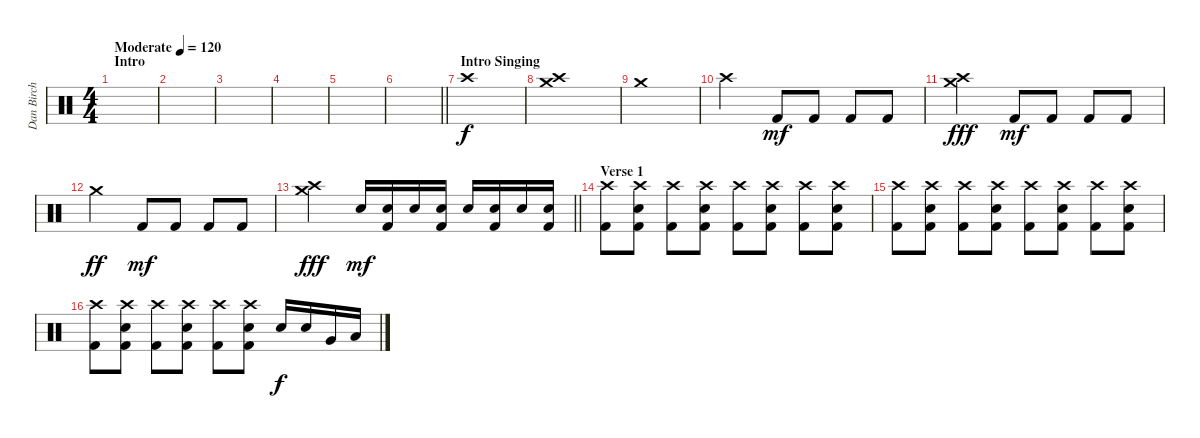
\track ("Dan Birch" "Dan Birch") {instrument percussion}
\staff {score}
\articulation defaults
\ts (4 4)
\section ("" "Intro")
\tempo (120 "Moderate")
\clef neutral
\ks c
|
|
|
|
|
\barLineRight lightlight
|
\section ("" "Intro Singing")
"Crash high (hit)".1 |
("Crash high (hit)" "Crash medium (hit)").1 |
"Crash medium (hit)".1 |
"Crash high (hit)".2 "Kick (hit) 2".8{dy mf} "Kick (hit) 2".8 "Kick (hit) 2".8 "Kick (hit) 2".8 |
("Crash high (hit)" "Crash medium (hit)").2{dy fff} "Kick (hit) 2".8{dy mf} "Kick (hit) 2".8 "Kick (hit) 2".8 "Kick (hit) 2".8 |
"Crash medium (hit)".2{dy ff} "Kick (hit) 2".8{dy mf} "Kick (hit) 2".8 "Kick (hit) 2".8 "Kick (hit) 2".8 |
\barLineRight lightlight
("Crash high (hit)" "Crash medium (hit)").2{dy fff} "Snare (hit) 2".16{dy mf} ("Snare (hit) 2" "Kick (hit) 2").16 "Snare (hit) 2".16 ("Snare (hit) 2" "Kick (hit) 2").16 "Snare (hit) 2".16 ("Snare (hit) 2" "Kick (hit) 2").16 "Snare (hit) 2".16 ("Snare (hit) 2" "Kick (hit) 2").16 |
\section ("" "Verse 1")
("Crash high (hit)" "Kick (hit) 2").8 ("Crash high (hit)" "Snare (hit) 2" "Kick (hit) 2").8 ("Crash high (hit)" "Kick (hit) 2").8 ("Crash high (hit)" "Snare (hit) 2" "Kick (hit) 2").8 ("Crash high (hit)" "Kick (hit) 2").8 ("Crash high (hit)" "Snare (hit) 2" "Kick (hit) 2").8 ("Crash high (hit)" "Kick (hit) 2").8 ("Crash high (hit)" "Snare (hit) 2" "Kick (hit) 2").8 |
("Crash high (hit)" "Kick (hit) 2").8 ("Crash high (hit)" "Snare (hit) 2" "Kick (hit) 2").8 ("Crash high (hit)" "Kick (hit) 2").8 ("Crash high (hit)" "Snare (hit) 2" "Kick (hit) 2").8 ("Crash high (hit)" "Kick (hit) 2").8 ("Crash high (hit)" "Snare (hit) 2" "Kick (hit) 2").8 ("Crash high (hit)" "Kick (hit) 2").8 ("Crash high (hit)" "Snare (hit) 2" "Kick (hit) 2").8 |
("Crash high (hit)" "Kick (hit) 2").8 ("Crash high (hit)" "Snare (hit) 2" "Kick (hit) 2").8 ("Crash high (hit)" "Kick (hit) 2").8 ("Crash high (hit)" "Snare (hit) 2" "Kick (hit) 2").8 ("Crash high (hit)" "Kick (hit) 2").8 ("Crash high (hit)" "Snare (hit) 2" "Kick (hit) 2").8 "Snare (hit) 2".16{dy f} "Snare (hit) 2".16 "Very Low Tom (hit)".16 "Low Tom (hit)".16
